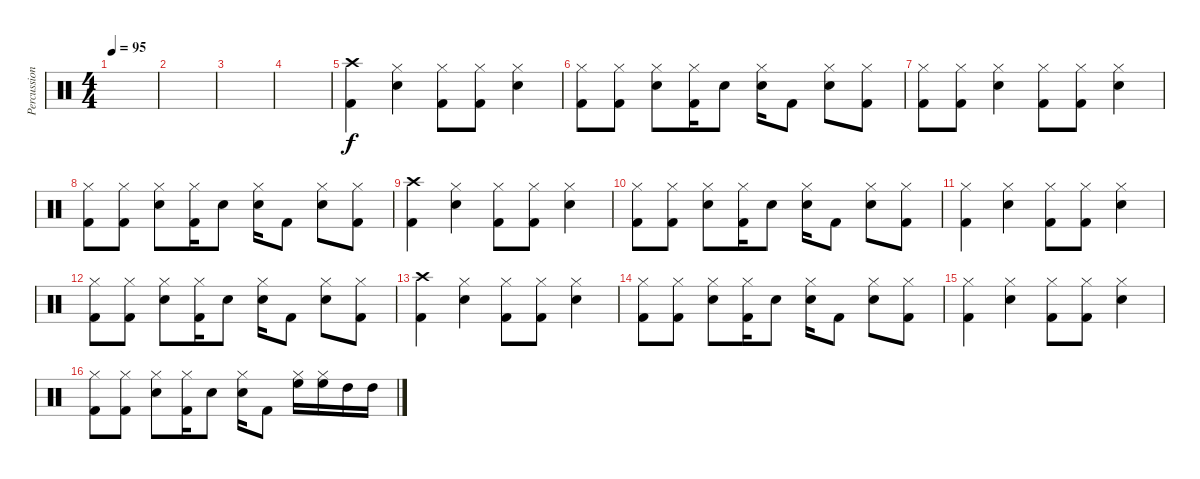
\track ("Percussion" "Percussion") {instrument percussion}
\staff {score}
\articulation defaults
\ts (4 4)
\tempo 95
\clef neutral
\ks c
|
|
|
|
("Kick (hit) 2" "Crash high (hit)").4 ("Snare (hit) 2" "Hi-Hat (closed)").4 ("Kick (hit) 2" "Hi-Hat (closed)").8 ("Kick (hit) 2" "Hi-Hat (closed)").8 ("Snare (hit) 2" "Hi-Hat (closed)").4 |
("Kick (hit) 2" "Hi-Hat (closed)").8 ("Kick (hit) 2" "Hi-Hat (closed)").8 ("Snare (hit) 2" "Hi-Hat (closed)").8 ("Kick (hit) 2" "Hi-Hat (closed)").16 "Snare (hit) 2".8 ("Snare (hit) 2" "Hi-Hat (closed)").16 "Kick (hit) 2".8 ("Snare (hit) 2" "Hi-Hat (closed)").8 ("Kick (hit) 2" "Hi-Hat (closed)").8 |
("Kick (hit) 2" "Hi-Hat (closed)").8 ("Kick (hit) 2" "Hi-Hat (closed)").8 ("Snare (hit) 2" "Hi-Hat (closed)").4 ("Kick (hit) 2" "Hi-Hat (closed)").8 ("Kick (hit) 2" "Hi-Hat (closed)").8 ("Snare (hit) 2" "Hi-Hat (closed)").4 |
("Kick (hit) 2" "Hi-Hat (closed)").8 ("Kick (hit) 2" "Hi-Hat (closed)").8 ("Snare (hit) 2" "Hi-Hat (closed)").8 ("Kick (hit) 2" "Hi-Hat (closed)").16 "Snare (hit) 2".8 ("Snare (hit) 2" "Hi-Hat (closed)").16 "Kick (hit) 2".8 ("Snare (hit) 2" "Hi-Hat (closed)").8 ("Kick (hit) 2" "Hi-Hat (closed)").8 |
("Kick (hit) 2" "Crash high (hit)").4 ("Snare (hit) 2" "Hi-Hat (closed)").4 ("Kick (hit) 2" "Hi-Hat (closed)").8 ("Kick (hit) 2" "Hi-Hat (closed)").8 ("Snare (hit) 2" "Hi-Hat (closed)").4 |
("Kick (hit) 2" "Hi-Hat (closed)").8 ("Kick (hit) 2" "Hi-Hat (closed)").8 ("Snare (hit) 2" "Hi-Hat (closed)").8 ("Kick (hit) 2" "Hi-Hat (closed)").16 "Snare (hit) 2".8 ("Snare (hit) 2" "Hi-Hat (closed)").16 "Kick (hit) 2".8 ("Snare (hit) 2" "Hi-Hat (closed)").8 ("Kick (hit) 2" "Hi-Hat (closed)").8 |
("Kick (hit) 2" "Hi-Hat (closed)").4 ("Snare (hit) 2" "Hi-Hat (closed)").4 ("Kick (hit) 2" "Hi-Hat (closed)").8 ("Kick (hit) 2" "Hi-Hat (closed)").8 ("Snare (hit) 2" "Hi-Hat (closed)").4 |
("Kick (hit) 2" "Hi-Hat (closed)").8 ("Kick (hit) 2" "Hi-Hat (closed)").8 ("Snare (hit) 2" "Hi-Hat (closed)").8 ("Kick (hit) 2" "Hi-Hat (closed)").16 "Snare (hit) 2".8 ("Snare (hit) 2" "Hi-Hat (closed)").16 "Kick (hit) 2".8 ("Snare (hit) 2" "Hi-Hat (closed)").8 ("Kick (hit) 2" "Hi-Hat (closed)").8 |
("Kick (hit) 2" "Crash high (hit)").4 ("Snare (hit) 2" "Hi-Hat (closed)").4 ("Kick (hit) 2" "Hi-Hat (closed)").8 ("Kick (hit) 2" "Hi-Hat (closed)").8 ("Snare (hit) 2" "Hi-Hat (closed)").4 |
("Kick (hit) 2" "Hi-Hat (closed)").8 ("Kick (hit) 2" "Hi-Hat (closed)").8 ("Snare (hit) 2" "Hi-Hat (closed)").8 ("Kick (hit) 2" "Hi-Hat (closed)").16 "Snare (hit) 2".8 ("Snare (hit) 2" "Hi-Hat (closed)").16 "Kick (hit) 2".8 ("Snare (hit) 2" "Hi-Hat (closed)").8 ("Kick (hit) 2" "Hi-Hat (closed)").8 |
("Kick (hit) 2" "Hi-Hat (closed)").4 ("Snare (hit) 2" "Hi-Hat (closed)").4 ("Kick (hit) 2" "Hi-Hat (closed)").8 ("Kick (hit) 2" "Hi-Hat (closed)").8 ("Snare (hit) 2" "Hi-Hat (closed)").4 |
("Kick (hit) 2" "Hi-Hat (closed)").8 ("Kick (hit) 2" "Hi-Hat (closed)").8 ("Snare (hit) 2" "Hi-Hat (closed)").8 ("Kick (hit) 2" "Hi-Hat (closed)").16 "Snare (hit) 2".8 ("Snare (hit) 2" "Hi-Hat (closed)").16 "Kick (hit) 2".8 ("High Floor Tom (hit)" "Hi-Hat (closed)").16 ("High Floor Tom (hit)" "Hi-Hat (closed)").16 "High Tom (hit)".16 "High Tom (hit)".16
